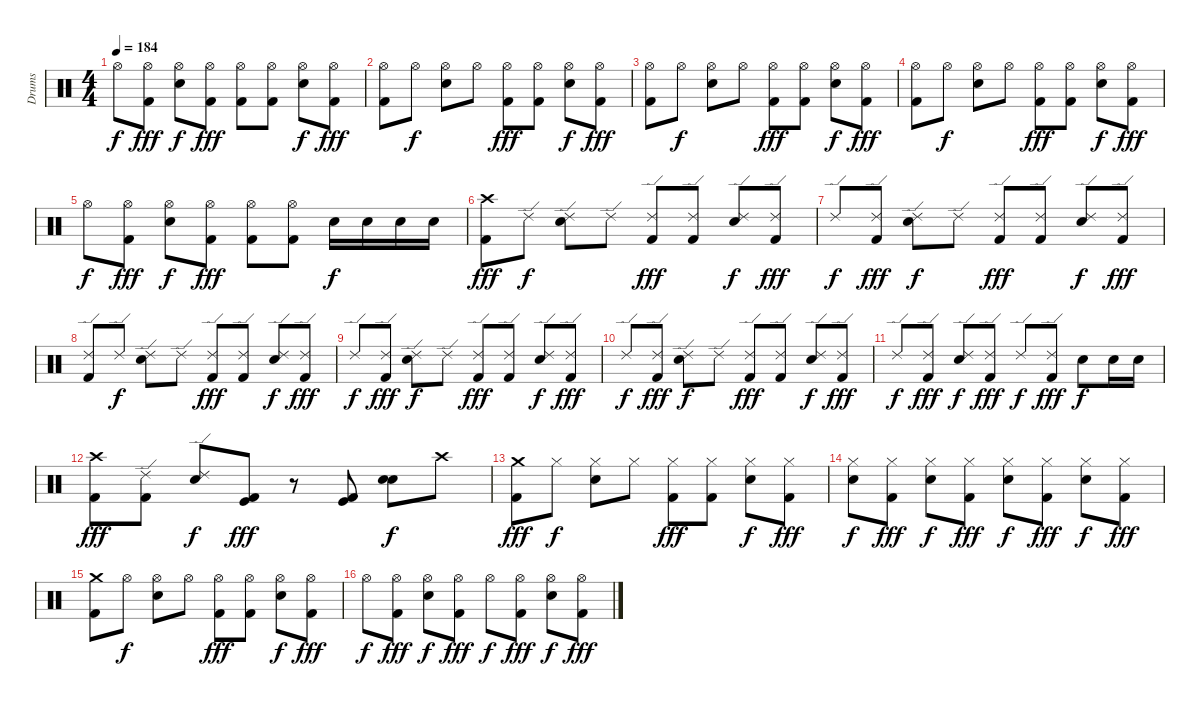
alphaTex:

\track ("Drums" "Drums") {instrument percussion}
\staff {score}
\articulation defaults
\ts (4 4)
\tempo 184
\clef neutral
\ks c "Hi-Hat (open)".8{dy f}
("Hi-Hat (open)" "Kick (hit) 2").8{dy fff} ("Hi-Hat (open)" "Snare (hit) 2").8{dy f} ("Hi-Hat (open)" "Kick (hit) 2").8{dy fff} ("Hi-Hat (open)" "Kick (hit) 2").8 ("Hi-Hat (open)" "Kick (hit) 2").8 ("Hi-Hat (open)" "Snare (hit) 2").8{dy f} ("Hi-Hat (open)" "Kick (hit) 2").8{dy fff} |
("Hi-Hat (open)" "Kick (hit) 2").8 "Hi-Hat (open)".8{dy f} ("Hi-Hat (open)" "Snare (hit) 2").8 "Hi-Hat (open)".8 ("Hi-Hat (open)" "Kick (hit) 2").8{dy fff} ("Hi-Hat (open)" "Kick (hit) 2").8 ("Hi-Hat (open)" "Snare (hit) 2").8{dy f} ("Hi-Hat (open)" "Kick (hit) 2").8{dy fff} |
("Hi-Hat (open)" "Kick (hit) 2").8 "Hi-Hat (open)".8{dy f} ("Hi-Hat (open)" "Snare (hit) 2").8 "Hi-Hat (open)".8 ("Hi-Hat (open)" "Kick (hit) 2").8{dy fff} ("Hi-Hat (open)" "Kick (hit) 2").8 ("Hi-Hat (open)" "Snare (hit) 2").8{dy f} ("Hi-Hat (open)" "Kick (hit) 2").8{dy fff} |
("Hi-Hat (open)" "Kick (hit) 2").8 "Hi-Hat (open)".8{dy f} ("Hi-Hat (open)" "Snare (hit) 2").8 "Hi-Hat (open)".8 ("Hi-Hat (open)" "Kick (hit) 2").8{dy fff} ("Hi-Hat (open)" "Kick (hit) 2").8 ("Hi-Hat (open)" "Snare (hit) 2").8{dy f} ("Hi-Hat (open)" "Kick (hit) 2").8{dy fff} |
"Hi-Hat (open)".8{dy f} ("Hi-Hat (open)" "Kick (hit) 2").8{dy fff} ("Hi-Hat (open)" "Snare (hit) 2").8{dy f} ("Hi-Hat (open)" "Kick (hit) 2").8{dy fff} ("Hi-Hat (open)" "Kick (hit) 2").8 ("Hi-Hat (open)" "Kick (hit) 2").8 "Snare (hit) 2".16{dy f} "Snare (hit) 2".16 "Snare (hit) 2".16 "Snare (hit) 2".16 |
("Crash high (hit)" "Kick (hit) 2").8{dy fff} "Ride (edge) 2".8{dy f} ("Ride (edge) 2" "Snare (hit) 2").8 "Ride (edge) 2".8 ("Ride (edge) 2" "Kick (hit) 2").8{dy fff} ("Ride (edge) 2" "Kick (hit) 2").8 ("Ride (edge) 2" "Snare (hit) 2").8{dy f} ("Ride (edge) 2" "Kick (hit) 2").8{dy fff} |
"Ride (edge) 2".8{dy f} ("Ride (edge) 2" "Kick (hit) 2").8{dy fff} ("Ride (edge) 2" "Snare (hit) 2").8{dy f} "Ride (edge) 2".8 ("Ride (edge) 2" "Kick (hit) 2").8{dy fff} ("Ride (edge) 2" "Kick (hit) 2").8 ("Ride (edge) 2" "Snare (hit) 2").8{dy f} ("Ride (edge) 2" "Kick (hit) 2").8{dy fff} |
("Ride (edge) 2" "Kick (hit) 2").8 "Ride (edge) 2".8{dy f} ("Ride (edge) 2" "Snare (hit) 2").8 "Ride (edge) 2".8 ("Ride (edge) 2" "Kick (hit) 2").8{dy fff} ("Ride (edge) 2" "Kick (hit) 2").8 ("Ride (edge) 2" "Snare (hit) 2").8{dy f} ("Ride (edge) 2" "Kick (hit) 2").8{dy fff} |
"Ride (edge) 2".8{dy f} ("Ride (edge) 2" "Kick (hit) 2").8{dy fff} ("Ride (edge) 2" "Snare (hit) 2").8{dy f} "Ride (edge) 2".8 ("Ride (edge) 2" "Kick (hit) 2").8{dy fff} ("Ride (edge) 2" "Kick (hit) 2").8 ("Ride (edge) 2" "Snare (hit) 2").8{dy f} ("Ride (edge) 2" "Kick (hit) 2").8{dy fff} |
"Ride (edge) 2".8{dy f} ("Ride (edge) 2" "Kick (hit) 2").8{dy fff} ("Ride (edge) 2" "Snare (hit) 2").8{dy f} "Ride (edge) 2".8 ("Ride (edge) 2" "Kick (hit) 2").8{dy fff} ("Ride (edge) 2" "Kick (hit) 2").8 ("Ride (edge) 2" "Snare (hit) 2").8{dy f} ("Ride (edge) 2" "Kick (hit) 2").8{dy fff} |
"Ride (edge) 2".8{dy f} ("Ride (edge) 2" "Kick (hit) 2").8{dy fff} ("Ride (edge) 2" "Snare (hit) 2").8{dy f} ("Ride (edge) 2" "Kick (hit) 2").8{dy fff} "Ride (edge) 2".8{dy f} ("Ride (edge) 2" "Kick (hit) 2").8{dy fff} "Snare (hit) 2".8{dy f} "Snare (hit) 2".16 "Snare (hit) 2".16 |
("Crash high (hit)" "Kick (hit) 2").8{dy fff} ("Ride (edge) 2" "Kick (hit) 2").8 ("Ride (edge) 2" "Snare (hit) 2").8{dy f} ("Kick (hit)" "Kick (hit) 2").8{dy fff} r.8 ("Kick (hit)" "Kick (hit) 2").8 ("Snare (hit) 2" "Snare (hit) 2").8{dy f} "Crash high (hit)".8 |
("Crash medium (hit)" "Kick (hit) 2").8{dy fff} "Hi-Hat (closed)".8{dy f} ("Hi-Hat (closed)" "Snare (hit) 2").8 "Hi-Hat (closed)".8 ("Hi-Hat (closed)" "Kick (hit) 2").8{dy fff} ("Hi-Hat (closed)" "Kick (hit) 2").8 ("Hi-Hat (closed)" "Snare (hit) 2").8{dy f} ("Hi-Hat (closed)" "Kick (hit) 2").8{dy fff} |
("Hi-Hat (closed)" "Snare (hit) 2").8{dy f} ("Hi-Hat (closed)" "Kick (hit) 2").8{dy fff} ("Hi-Hat (closed)" "Snare (hit) 2").8{dy f} ("Hi-Hat (closed)" "Kick (hit) 2").8{dy fff} ("Hi-Hat (closed)" "Snare (hit) 2").8{dy f} ("Hi-Hat (closed)" "Kick (hit) 2").8{dy fff} ("Hi-Hat (closed)" "Snare (hit) 2").8{dy f} ("Hi-Hat (closed)" "Kick (hit) 2").8{dy fff} |
("Crash medium (hit)" "Kick (hit) 2").8 "Hi-Hat (open)".8{dy f} ("Hi-Hat (open)" "Snare (hit) 2").8 "Hi-Hat (open)".8 ("Hi-Hat (open)" "Kick (hit) 2").8{dy fff} ("Hi-Hat (open)" "Kick (hit) 2").8 ("Hi-Hat (open)" "Snare (hit) 2").8{dy f} ("Hi-Hat (open)" "Kick (hit) 2").8{dy fff} |
"Hi-Hat (open)".8{dy f} ("Hi-Hat (open)" "Kick (hit) 2").8{dy fff} ("Hi-Hat (open)" "Snare (hit) 2").8{dy f} ("Hi-Hat (open)" "Kick (hit) 2").8{dy fff} "Hi-Hat (open)".8{dy f} ("Hi-Hat (open)" "Kick (hit) 2").8{dy fff} ("Hi-Hat (open)" "Snare (hit) 2").8{dy f} ("Hi-Hat (open)" "Kick (hit) 2").8{dy fff}
